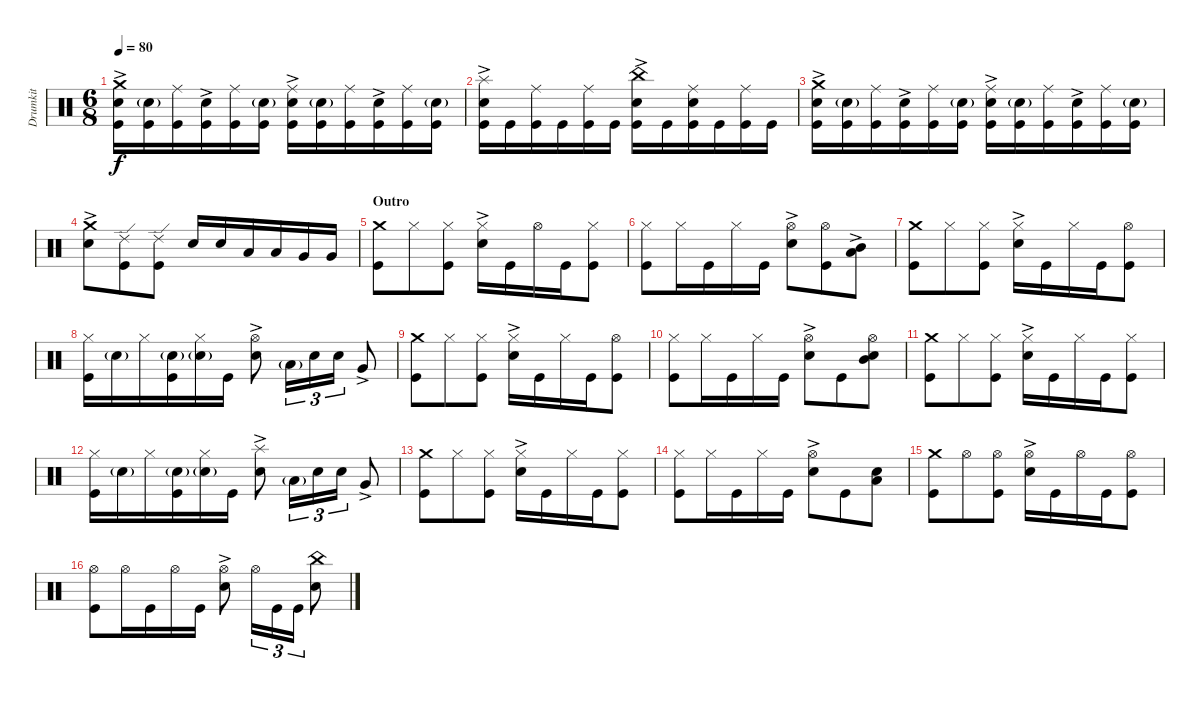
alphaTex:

\track ("Drumkit" "Drumkit") {instrument percussion}
\staff {score}
\articulation defaults
\ts (6 8)
\tempo 80
\clef neutral
\ks c
("Kick (hit)" "Snare (hit) 2"{ac} "Crash medium (hit)").16{dy f} ("Kick (hit)" "Snare (hit) 2"{g}).16 ("Kick (hit)" "Ride (middle)").16 ("Kick (hit)" "Snare (hit) 2"{ac}).16 ("Kick (hit)" "Ride (middle)").16 ("Kick (hit)" "Snare (hit) 2"{g}).16 ("Kick (hit)" "Snare (hit) 2"{ac} "Ride (middle)").16 ("Kick (hit)" "Snare (hit) 2"{g}).16 ("Kick (hit)" "Ride (middle)").16 ("Kick (hit)" "Snare (hit) 2"{ac}).16 ("Kick (hit)" "Ride (middle)").16 ("Kick (hit)" "Snare (hit) 2"{g}).16 |
("Kick (hit)" "Snare (hit) 2"{ac} "Splash (hit)").16 "Kick (hit)".16 ("Kick (hit)" "Ride (middle)").16 "Kick (hit)".16 ("Kick (hit)" "Ride (middle)").16 "Kick (hit)".16 ("Kick (hit)" "Snare (hit) 2"{ac} "China (hit)").16 "Kick (hit)".16 ("Kick (hit)" "Ride (middle)" "Snare (hit) 2").16 "Kick (hit)".16 ("Kick (hit)" "Ride (middle)").16 "Kick (hit)".16 |
("Kick (hit)" "Snare (hit) 2"{ac} "Crash medium (hit)").16 ("Kick (hit)" "Snare (hit) 2"{g}).16 ("Kick (hit)" "Ride (middle)").16 ("Kick (hit)" "Snare (hit) 2"{ac}).16 ("Kick (hit)" "Ride (middle)").16 ("Kick (hit)" "Snare (hit) 2"{g}).16 ("Kick (hit)" "Snare (hit) 2"{ac} "Ride (middle)").16 ("Kick (hit)" "Snare (hit) 2"{g}).16 ("Kick (hit)" "Ride (middle)").16 ("Kick (hit)" "Snare (hit) 2"{ac}).16 ("Kick (hit)" "Ride (middle)").16 ("Kick (hit)" "Snare (hit) 2"{g}).16 |
("Crash medium (hit)" "Snare (hit) 2"{ac}).8 ("Ride (edge) 2" "Kick (hit)").8 ("Ride (edge) 2" "Kick (hit)").8 "Snare (hit) 2".16 "Snare (hit) 2".16 "Low Tom (hit)".16 "Low Tom (hit)".16 "Very Low Tom (hit)".16 "Very Low Tom (hit)".16 |
\section ("" "Outro")
("Kick (hit)" "Crash medium (hit)").8 "Hi-Hat (closed)".8 ("Kick (hit)" "Hi-Hat (closed)").8 ("Hi-Hat (closed)" "Snare (hit) 2"{ac}).16 "Kick (hit)".16 "Hi-Hat (open)".16 "Kick (hit)".16 ("Kick (hit)" "Hi-Hat (closed)").8 |
("Kick (hit)" "Hi-Hat (closed)").8 "Hi-Hat (closed)".16 "Kick (hit)".16 "Hi-Hat (closed)".16 "Kick (hit)".16 ("Snare (hit) 2"{ac} "Hi-Hat (open)").8 ("Kick (hit)" "Hi-Hat (open)").8 ("Low Tom (hit)" "Mid Tom (hit)"{ac}).8 |
("Kick (hit)" "Crash medium (hit)").8 "Hi-Hat (closed)".8 ("Kick (hit)" "Hi-Hat (closed)").8 ("Hi-Hat (closed)" "Snare (hit) 2"{ac}).16 "Kick (hit)".16 "Hi-Hat (closed)".16 "Kick (hit)".16 ("Kick (hit)" "Hi-Hat (open)").8 |
("Kick (hit)" "Hi-Hat (closed)").16 "Snare (hit) 2"{g}.16 "Hi-Hat (closed)".16 ("Kick (hit)" "Snare (hit) 2"{g}).16 ("Hi-Hat (closed)" "Snare (hit) 2"{g}).16 "Kick (hit)".16 ("Snare (hit) 2"{ac} "Hi-Hat (open)").8 "Low Tom (hit)"{g}.16{tu (3 2)} "Snare (hit) 2".16{tu (3 2)} "Snare (hit) 2".16{tu (3 2)} "Very Low Tom (hit)"{ac}.8 |
("Kick (hit)" "Crash medium (hit)").8 "Hi-Hat (closed)".8 ("Kick (hit)" "Hi-Hat (closed)").8 ("Hi-Hat (closed)" "Snare (hit) 2"{ac}).16 "Kick (hit)".16 "Hi-Hat (closed)".16 "Kick (hit)".16 ("Kick (hit)" "Hi-Hat (open)").8 |
("Kick (hit)" "Hi-Hat (closed)").8 "Hi-Hat (closed)".16 "Kick (hit)".16 "Hi-Hat (closed)".16 "Kick (hit)".16 ("Snare (hit) 2"{ac} "Hi-Hat (open)").8 "Kick (hit)".8 ("Snare (hit) 2" "Mid Tom (hit)" "Hi-Hat (open)").8 |
("Kick (hit)" "Crash medium (hit)").8 "Hi-Hat (closed)".8 ("Kick (hit)" "Hi-Hat (closed)").8 ("Hi-Hat (closed)" "Snare (hit) 2"{ac}).16 "Kick (hit)".16 "Hi-Hat (closed)".16 "Kick (hit)".16 ("Kick (hit)" "Hi-Hat (closed)").8 |
("Kick (hit)" "Hi-Hat (closed)").16 "Snare (hit) 2"{g}.16 "Hi-Hat (closed)".16 ("Kick (hit)" "Snare (hit) 2"{g}).16 ("Hi-Hat (closed)" "Snare (hit) 2"{g}).16 "Kick (hit)".16 ("Snare (hit) 2"{ac} "Splash (hit)").8 "Low Tom (hit)"{g}.16{tu (3 2)} "Snare (hit) 2".16{tu (3 2)} "Snare (hit) 2".16{tu (3 2)} "Very Low Tom (hit)"{ac}.8 |
("Kick (hit)" "Crash medium (hit)").8 "Hi-Hat (closed)".8 ("Kick (hit)" "Hi-Hat (closed)").8 ("Hi-Hat (closed)" "Snare (hit) 2"{ac}).16 "Kick (hit)".16 "Hi-Hat (closed)".16 "Kick (hit)".16 ("Kick (hit)" "Hi-Hat (closed)").8 |
("Kick (hit)" "Hi-Hat (closed)").8 "Hi-Hat (closed)".16 "Kick (hit)".16 "Hi-Hat (closed)".16 "Kick (hit)".16 ("Snare (hit) 2"{ac} "Hi-Hat (open)").8 "Kick (hit)".8 ("Low Tom (hit)" "Snare (hit) 2").8 |
("Kick (hit)" "Crash medium (hit)").8 "Hi-Hat (open)".8 ("Kick (hit)" "Hi-Hat (open)").8 ("Snare (hit) 2"{ac} "Hi-Hat (open)").16 "Kick (hit)".16 "Hi-Hat (open)".16 "Kick (hit)".16 ("Kick (hit)" "Hi-Hat (open)").8 |
("Kick (hit)" "Hi-Hat (open)").8 "Hi-Hat (open)".16 "Kick (hit)".16 "Hi-Hat (open)".16 "Kick (hit)".16 ("Snare (hit) 2"{ac} "Hi-Hat (open)").8 "Hi-Hat (open)".16{tu (3 2)} "Kick (hit)".16{tu (3 2)} "Kick (hit)".16{tu (3 2)} ("China (hit)" "Snare (hit) 2").8
